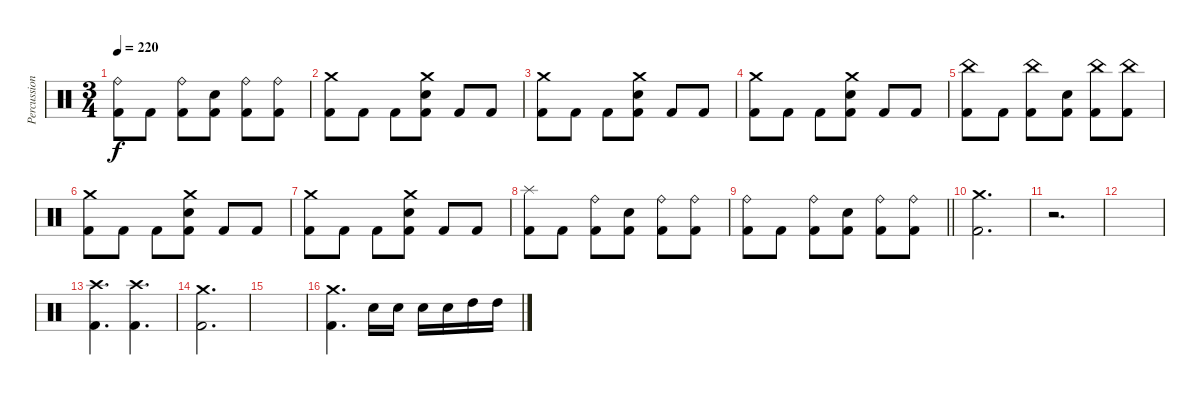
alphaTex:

\track ("Percussion" "Percussion") {instrument percussion}
\staff {score}
\articulation defaults
\ts (3 4)
\tempo 220
\clef neutral
\ks c
("Ride (bell)" "Kick (hit) 2").8{dy f} "Kick (hit) 2".8 ("Ride (bell)" "Kick (hit) 2").8 ("Electric Snare (hit)" "Kick (hit) 2").8 ("Ride (bell)" "Kick (hit) 2").8 ("Ride (bell)" "Kick (hit) 2").8 |
("Crash medium (hit)" "Kick (hit) 2").8 "Kick (hit) 2".8 "Kick (hit) 2".8 ("Crash medium (hit)" "Electric Snare (hit)" "Kick (hit) 2").8 "Kick (hit) 2".8 "Kick (hit) 2".8 |
("Crash medium (hit)" "Kick (hit) 2").8 "Kick (hit) 2".8 "Kick (hit) 2".8 ("Crash medium (hit)" "Electric Snare (hit)" "Kick (hit) 2").8 "Kick (hit) 2".8 "Kick (hit) 2".8 |
("Crash medium (hit)" "Kick (hit) 2").8 "Kick (hit) 2".8 "Kick (hit) 2".8 ("Crash medium (hit)" "Electric Snare (hit)" "Kick (hit) 2").8 "Kick (hit) 2".8 "Kick (hit) 2".8 |
("China (hit)" "Kick (hit) 2").8 "Kick (hit) 2".8 ("China (hit)" "Kick (hit) 2").8 ("Electric Snare (hit)" "Kick (hit) 2").8 ("China (hit)" "Kick (hit) 2").8 ("China (hit)" "Kick (hit) 2").8 |
("Crash medium (hit)" "Kick (hit) 2").8 "Kick (hit) 2".8 "Kick (hit) 2".8 ("Crash medium (hit)" "Electric Snare (hit)" "Kick (hit) 2").8 "Kick (hit) 2".8 "Kick (hit) 2".8 |
("Crash medium (hit)" "Kick (hit) 2").8 "Kick (hit) 2".8 "Kick (hit) 2".8 ("Crash medium (hit)" "Electric Snare (hit)" "Kick (hit) 2").8 "Kick (hit) 2".8 "Kick (hit) 2".8 |
("Splash (hit)" "Kick (hit) 2").8 "Kick (hit) 2".8 ("Ride (bell)" "Kick (hit) 2").8 ("Electric Snare (hit)" "Kick (hit) 2").8 ("Ride (bell)" "Kick (hit) 2").8 ("Ride (bell)" "Kick (hit) 2").8 |
\barLineRight lightlight
("Ride (bell)" "Kick (hit) 2").8 "Kick (hit) 2".8 ("Ride (bell)" "Kick (hit) 2").8 ("Electric Snare (hit)" "Kick (hit) 2").8 ("Ride (bell)" "Kick (hit) 2").8 ("Ride (bell)" "Kick (hit) 2").8 |
("Crash medium (hit)" "Kick (hit) 2").2{d} |
r.2{d} |
|
("Crash high (hit)" "Kick (hit) 2").4{d} ("Crash high (hit)" "Kick (hit) 2").4{d} |
("Crash medium (hit)" "Kick (hit) 2").2{d} |
|
("Crash medium (hit)" "Kick (hit) 2").4{d} "Electric Snare (hit)".16 "Electric Snare (hit)".16 "Electric Snare (hit)".16 "Electric Snare (hit)".16 "High Tom (hit)".16 "High Tom (hit)".16
